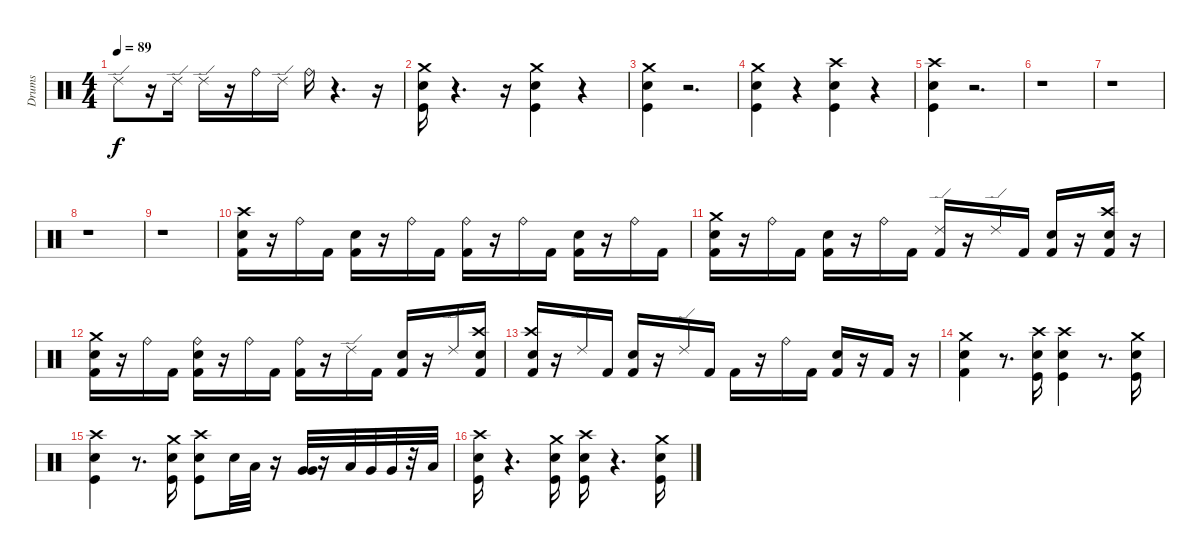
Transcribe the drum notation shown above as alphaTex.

\track ("Drums" "Drums") {instrument percussion}
\staff {score}
\articulation defaults
\ts (4 4)
\tempo 89
\clef neutral
\ks c "Ride (edge) 2".8{dy f}
r.16 "Ride (edge) 2".16 "Ride (edge) 2".16 r.16 "Ride (bell)".16 "Ride (edge) 2".16 "Ride (bell)".16 r.4{d} r.16 |
("Crash medium (hit)" "Snare (hit) 2" "Kick (hit)").16 r.4{d} r.16 ("Crash medium (hit)" "Snare (hit) 2" "Kick (hit)").4 r.4 |
("Crash medium (hit)" "Snare (hit) 2" "Kick (hit)").4 r.2{d} |
("Crash medium (hit)" "Electric Snare (hit)" "Kick (hit)").4 r.4 ("Crash high (hit)" "Electric Snare (hit)" "Kick (hit)").4 r.4 |
("Crash high (hit)" "Snare (hit) 2" "Kick (hit)").4 r.2{d} |
r.1 |
r.1 |
r.1 |
r.1 |
("Crash high (hit)" "Snare (hit) 2" "Kick (hit) 2").16{volume 16 balance 8} r.16 "Ride (bell)".16 "Kick (hit) 2".16 ("Snare (hit) 2" "Kick (hit) 2").16 r.16 "Ride (bell)".16 "Kick (hit) 2".16 ("Ride (bell)" "Kick (hit) 2").16 r.16 "Ride (bell)".16 "Kick (hit) 2".16 ("Snare (hit) 2" "Kick (hit) 2").16 r.16 "Ride (bell)".16 "Kick (hit) 2".16 |
("Crash medium (hit)" "Snare (hit) 2" "Kick (hit) 2").16 r.16 "Ride (bell)".16 "Kick (hit) 2".16 ("Electric Snare (hit)" "Kick (hit) 2").16 r.16 "Ride (bell)".16 "Kick (hit) 2".16 ("Ride (edge) 2" "Kick (hit) 2").16 r.16 "Ride (edge) 2".16 "Kick (hit) 2".16 ("Snare (hit) 2" "Kick (hit) 2").16 r.16 ("Crash high (hit)" "Snare (hit) 2" "Kick (hit) 2").16 r.16 |
("Crash medium (hit)" "Snare (hit) 2" "Kick (hit) 2").16 r.16 "Ride (bell)".16 "Kick (hit) 2".16 ("Ride (bell)" "Snare (hit) 2" "Kick (hit) 2").16 r.16 "Ride (bell)".16 "Kick (hit) 2".16 ("Ride (bell)" "Kick (hit) 2").16 r.16 "Ride (edge) 2".16 "Kick (hit) 2".16 ("Snare (hit) 2" "Kick (hit) 2").16 r.16 "Ride (edge) 2".16 ("Snare (hit) 2" "Crash high (hit)" "Kick (hit) 2").16 |
("Snare (hit) 2" "Crash high (hit)" "Kick (hit) 2").16 r.16 "Ride (edge) 2".16 "Kick (hit) 2".16 ("Snare (hit) 2" "Kick (hit) 2").16 r.16 "Ride (edge) 2".16 "Kick (hit) 2".16 "Kick (hit) 2".16 r.16 "Ride (bell)".16 "Kick (hit) 2".16 ("Snare (hit) 2" "Kick (hit) 2").16 r.16 "Kick (hit) 2".16 r.16 |
("Snare (hit) 2" "Crash medium (hit)" "Kick (hit) 2").4{volume 16 balance 8} r.8{d} ("Crash high (hit)" "Snare (hit) 2" "Kick (hit)").16 ("Crash high (hit)" "Snare (hit) 2" "Kick (hit)").4 r.8{d} ("Crash medium (hit)" "Snare (hit) 2" "Kick (hit)").16 |
("Crash high (hit)" "Snare (hit) 2" "Kick (hit)").4 r.8{d} ("Crash medium (hit)" "Snare (hit) 2" "Kick (hit)").16 ("Kick (hit)" "Snare (hit) 2" "Crash high (hit)").8 "Snare (hit) 2".32 "Low Tom (hit)".32 r.16 ("Very Low Tom (hit)" "Very Low Tom (hit)").32 r.16 "Low Tom (hit)".32 "Very Low Tom (hit)".32 "Very Low Tom (hit)".32 r.32 "Low Floor Tom (hit)".32 |
("Crash high (hit)" "Electric Snare (hit)" "Kick (hit)").16 r.4{d} ("Crash medium (hit)" "Snare (hit) 2" "Kick (hit)").16 ("Kick (hit)" "Snare (hit) 2" "Crash high (hit)").16 r.4{d} ("Kick (hit)" "Crash medium (hit)" "Snare (hit) 2").16
